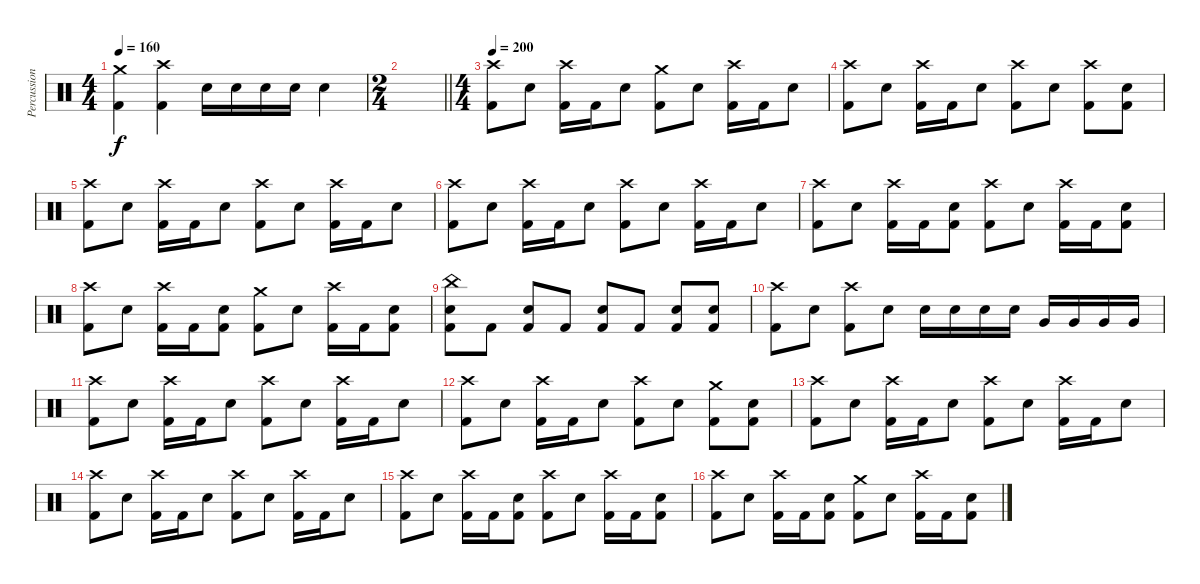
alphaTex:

\track ("Percussion" "Percussion") {instrument percussion}
\staff {score}
\articulation defaults
\ts (4 4)
\tempo 160
\clef neutral
\ks c
("Crash medium (hit)" "Kick (hit) 2").4{dy f} ("Crash high (hit)" "Kick (hit) 2").4 "Electric Snare (hit)".16 "Electric Snare (hit)".16 "Electric Snare (hit)".16 "Electric Snare (hit)".16 "Electric Snare (hit)".4 |
\ts (2 4)
\barLineRight lightlight
|
\ts (4 4)
\section ("" "")
\tempo 200
("Crash high (hit)" "Kick (hit) 2").8 "Electric Snare (hit)".8 ("Crash high (hit)" "Kick (hit) 2").16 "Kick (hit) 2".16 "Electric Snare (hit)".8 ("Crash medium (hit)" "Kick (hit) 2").8 "Electric Snare (hit)".8 ("Crash high (hit)" "Kick (hit) 2").16 "Kick (hit) 2".16 "Electric Snare (hit)".8 |
("Crash high (hit)" "Kick (hit) 2").8 "Electric Snare (hit)".8 ("Crash high (hit)" "Kick (hit) 2").16 "Kick (hit) 2".16 "Electric Snare (hit)".8 ("Crash high (hit)" "Kick (hit) 2").8 "Electric Snare (hit)".8 ("Crash high (hit)" "Kick (hit) 2").8 ("Electric Snare (hit)" "Kick (hit) 2").8 |
("Crash high (hit)" "Kick (hit) 2").8 "Electric Snare (hit)".8 ("Crash high (hit)" "Kick (hit) 2").16 "Kick (hit) 2".16 "Electric Snare (hit)".8 ("Crash high (hit)" "Kick (hit) 2").8 "Electric Snare (hit)".8 ("Crash high (hit)" "Kick (hit) 2").16 "Kick (hit) 2".16 "Electric Snare (hit)".8 |
("Crash high (hit)" "Kick (hit) 2").8 "Electric Snare (hit)".8 ("Crash high (hit)" "Kick (hit) 2").16 "Kick (hit) 2".16 "Electric Snare (hit)".8 ("Crash high (hit)" "Kick (hit) 2").8 "Electric Snare (hit)".8 ("Crash high (hit)" "Kick (hit) 2").16 "Kick (hit) 2".16 "Electric Snare (hit)".8 |
("Crash high (hit)" "Kick (hit) 2").8 "Electric Snare (hit)".8 ("Crash high (hit)" "Kick (hit) 2").16 "Kick (hit) 2".16 ("Electric Snare (hit)" "Kick (hit) 2").8 ("Crash high (hit)" "Kick (hit) 2").8 "Electric Snare (hit)".8 ("Crash high (hit)" "Kick (hit) 2").16 "Kick (hit) 2".16 ("Electric Snare (hit)" "Kick (hit) 2").8 |
("Crash high (hit)" "Kick (hit) 2").8 "Electric Snare (hit)".8 ("Crash high (hit)" "Kick (hit) 2").16 "Kick (hit) 2".16 ("Electric Snare (hit)" "Kick (hit) 2").8 ("Crash medium (hit)" "Kick (hit) 2").8 "Electric Snare (hit)".8 ("Crash high (hit)" "Kick (hit) 2").16 "Kick (hit) 2".16 ("Electric Snare (hit)" "Kick (hit) 2").8 |
("China (hit)" "Electric Snare (hit)" "Kick (hit) 2").8 "Kick (hit) 2".8 ("Electric Snare (hit)" "Kick (hit) 2").8 "Kick (hit) 2".8 ("Electric Snare (hit)" "Kick (hit) 2").8 "Kick (hit) 2".8 ("Electric Snare (hit)" "Kick (hit) 2").8 ("Electric Snare (hit)" "Kick (hit) 2").8 |
("Crash high (hit)" "Kick (hit) 2").8 "Electric Snare (hit)".8 ("Crash high (hit)" "Kick (hit) 2").8 "Electric Snare (hit)".8 "Electric Snare (hit)".16 "Electric Snare (hit)".16 "Electric Snare (hit)".16 "Electric Snare (hit)".16 "Very Low Tom (hit)".16 "Very Low Tom (hit)".16 "Very Low Tom (hit)".16 "Very Low Tom (hit)".16 |
("Crash high (hit)" "Kick (hit) 2").8 "Electric Snare (hit)".8 ("Crash high (hit)" "Kick (hit) 2").16 "Kick (hit) 2".16 "Electric Snare (hit)".8 ("Crash high (hit)" "Kick (hit) 2").8 "Electric Snare (hit)".8 ("Crash high (hit)" "Kick (hit) 2").16 "Kick (hit) 2".16 "Electric Snare (hit)".8 |
("Crash high (hit)" "Kick (hit) 2").8 "Electric Snare (hit)".8 ("Crash high (hit)" "Kick (hit) 2").16 "Kick (hit) 2".16 "Electric Snare (hit)".8 ("Crash high (hit)" "Kick (hit) 2").8 "Electric Snare (hit)".8 ("Crash medium (hit)" "Kick (hit) 2").8 ("Electric Snare (hit)" "Kick (hit) 2").8 |
("Crash high (hit)" "Kick (hit) 2").8 "Electric Snare (hit)".8 ("Crash high (hit)" "Kick (hit) 2").16 "Kick (hit) 2".16 "Electric Snare (hit)".8 ("Crash high (hit)" "Kick (hit) 2").8 "Electric Snare (hit)".8 ("Crash high (hit)" "Kick (hit) 2").16 "Kick (hit) 2".16 "Electric Snare (hit)".8 |
("Crash high (hit)" "Kick (hit) 2").8 "Electric Snare (hit)".8 ("Crash high (hit)" "Kick (hit) 2").16 "Kick (hit) 2".16 "Electric Snare (hit)".8 ("Crash high (hit)" "Kick (hit) 2").8 "Electric Snare (hit)".8 ("Crash high (hit)" "Kick (hit) 2").16 "Kick (hit) 2".16 "Electric Snare (hit)".8 |
("Crash high (hit)" "Kick (hit) 2").8 "Electric Snare (hit)".8 ("Crash high (hit)" "Kick (hit) 2").16 "Kick (hit) 2".16 ("Electric Snare (hit)" "Kick (hit) 2").8 ("Crash high (hit)" "Kick (hit) 2").8 "Electric Snare (hit)".8 ("Crash high (hit)" "Kick (hit) 2").16 "Kick (hit) 2".16 ("Electric Snare (hit)" "Kick (hit) 2").8 |
("Crash high (hit)" "Kick (hit) 2").8 "Electric Snare (hit)".8 ("Crash high (hit)" "Kick (hit) 2").16 "Kick (hit) 2".16 ("Electric Snare (hit)" "Kick (hit) 2").8 ("Crash medium (hit)" "Kick (hit) 2").8 "Electric Snare (hit)".8 ("Crash high (hit)" "Kick (hit) 2").16 "Kick (hit) 2".16 ("Electric Snare (hit)" "Kick (hit) 2").8
